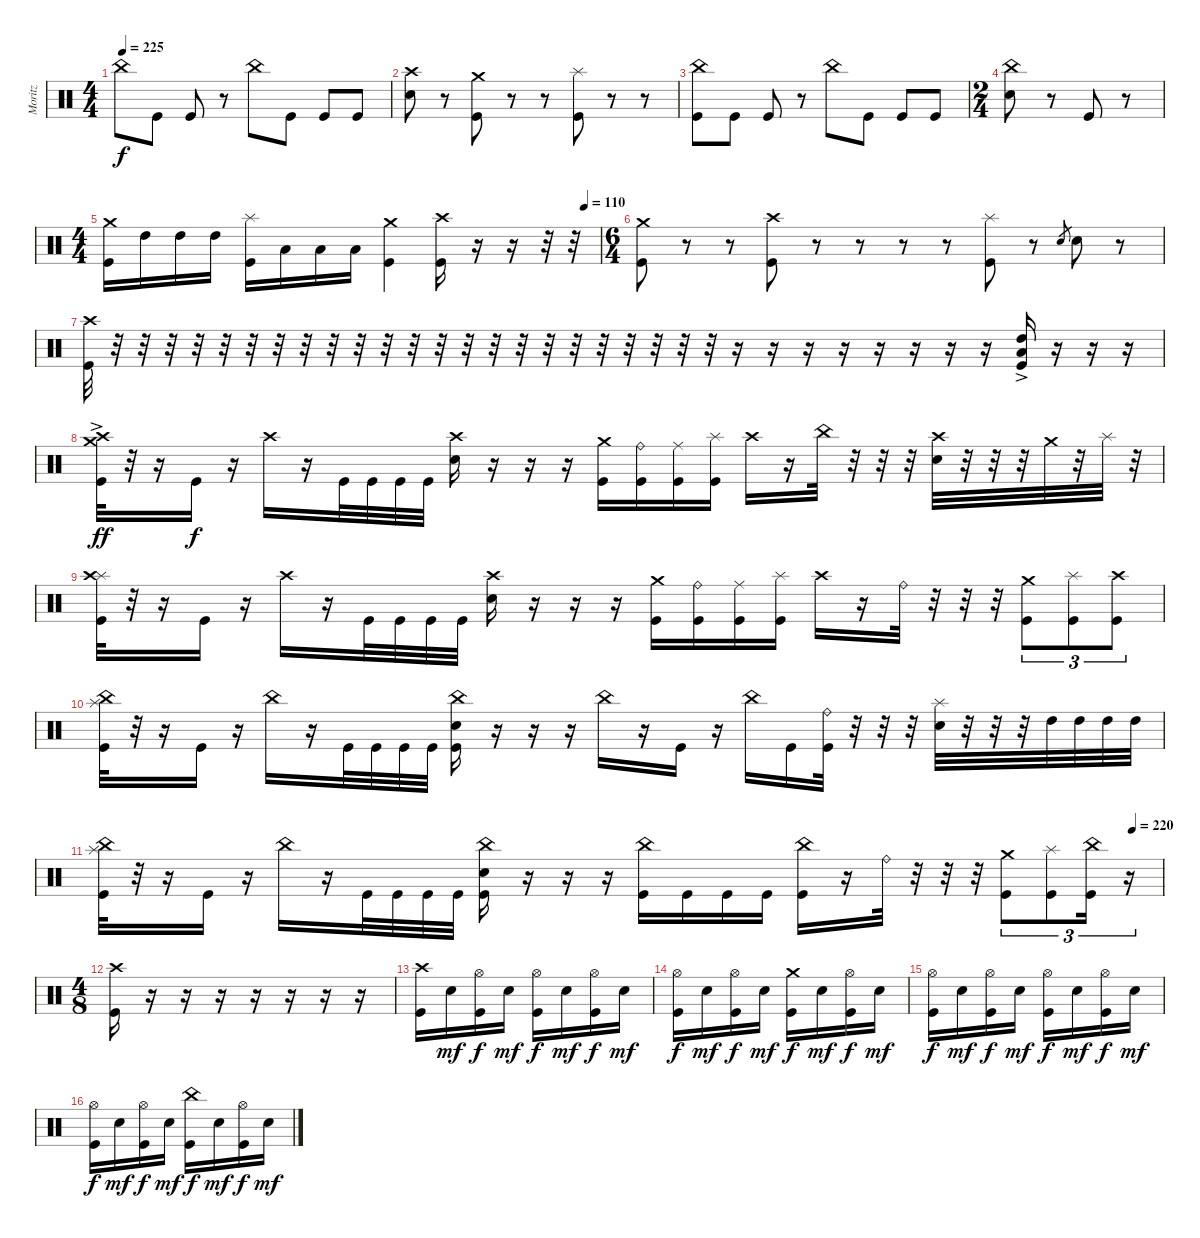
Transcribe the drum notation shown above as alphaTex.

\track ("Moritz" "Moritz") {instrument percussion}
\staff {score}
\articulation defaults
\ts (4 4)
\tempo 225
\clef neutral
\ks c "China (hit)".8{dy f} "Kick (hit)".8 "Kick (hit)".8
r.8 "China (hit)".8 "Kick (hit)".8 "Kick (hit)".8 "Kick (hit)".8 |
("Crash high (hit)" "Snare (hit) 2").8 r.8 ("Crash medium (hit)" "Kick (hit)").8 r.8 r.8 ("Splash (hit)" "Kick (hit)").8 r.8 r.8 |
("China (hit)" "Kick (hit)").8 "Kick (hit)".8 "Kick (hit)".8 r.8 "China (hit)".8 "Kick (hit)".8 "Kick (hit)".8 "Kick (hit)".8 |
\ts (2 4)
("China (hit)" "Snare (hit) 2").8 r.8 "Kick (hit)".8 r.8 |
\ts (4 4)
\tempo (110 0.96875)
("Crash medium (hit)" "Kick (hit)").16 "High Tom (hit)".16 "High Tom (hit)".16 "High Tom (hit)".16 ("Splash (hit)" "Kick (hit)").16 "Low Tom (hit)".16 "Low Tom (hit)".16 "Low Tom (hit)".16 ("Crash medium (hit)" "Kick (hit)").4 ("Crash high (hit)" "Kick (hit)").16 r.16 r.16 r.32 r.32 |
\ts (6 4)
("Crash medium (hit)" "Kick (hit)").8 r.8 r.8 ("Crash high (hit)" "Kick (hit)").8 r.8 r.8 r.8 r.8 ("Splash (hit)" "Kick (hit)").8 r.8 "Snare (hit) 2".8{gr} "Snare (hit) 2".8 r.8 |
("Crash high (hit)" "Kick (hit)").32 r.32 r.32 r.32 r.32 r.32 r.32 r.32 r.32 r.32 r.32 r.32 r.32 r.32 r.32 r.32 r.32 r.32 r.32 r.32 r.32 r.32 r.32 r.32 r.16 r.16 r.16 r.16 r.16 r.16 r.16 r.16 ("High Tom (hit)"{ac} "Low Floor Tom (hit)"{ac} "Kick (hit)"{ac}).16 r.16 r.16 r.16 |
("Crash medium (hit)"{ac} "Crash high (hit)"{ac} "Kick (hit)"{ac}).32{dy ff} r.32 r.16 "Kick (hit)".16{dy f} r.16 "Crash high (hit)".16 r.16 "Kick (hit)".32 "Kick (hit)".32 "Kick (hit)".32 "Kick (hit)".32 ("Crash high (hit)" "Snare (hit) 2").16 r.16 r.16 r.16 ("Crash medium (hit)" "Kick (hit)").16 ("Ride (bell)" "Kick (hit)").16 ("Ride (middle)" "Kick (hit)").16 ("Splash (hit)" "Kick (hit)").16 "Crash high (hit)".16 r.16 "China (hit)".32 r.32 r.32 r.32 ("Crash high (hit)" "Snare (hit) 2").32 r.32 r.32 r.32 "Crash medium (hit)".32 r.32 "Splash (hit)".32 r.32 |
("Splash (hit)" "Crash high (hit)" "Kick (hit)").32 r.32 r.16 "Kick (hit)".16 r.16 "Crash high (hit)".16 r.16 "Kick (hit)".32 "Kick (hit)".32 "Kick (hit)".32 "Kick (hit)".32 ("Crash high (hit)" "Snare (hit) 2").16 r.16 r.16 r.16 ("Crash medium (hit)" "Kick (hit)").16 ("Ride (bell)" "Kick (hit)").16 ("Ride (middle)" "Kick (hit)").16 ("Splash (hit)" "Kick (hit)").16 "Crash high (hit)".16 r.16 "Ride (bell)".32 r.32 r.32 r.32 ("Crash medium (hit)" "Kick (hit)").8{tu (3 2)} ("Splash (hit)" "Kick (hit)").8{tu (3 2)} ("Crash high (hit)" "Kick (hit)").8{tu (3 2)} |
("Splash (hit)" "China (hit)" "Kick (hit)").32 r.32 r.16 "Kick (hit)".16 r.16 "China (hit)".16 r.16 "Kick (hit)".32 "Kick (hit)".32 "Kick (hit)".32 "Kick (hit)".32 ("China (hit)" "Snare (hit) 2" "Kick (hit)").16 r.16 r.16 r.16 "China (hit)".16 r.16 "Kick (hit)".16 r.16 "China (hit)".16 "Kick (hit)".16 ("Ride (bell)" "Kick (hit)").32 r.32 r.32 r.32 ("Splash (hit)" "Snare (hit) 2").32 r.32 r.32 r.32 "High Tom (hit)".32 "High Tom (hit)".32 "High Tom (hit)".32 "High Tom (hit)".32 |
\tempo (220 0.9722222222222222)
("Splash (hit)" "China (hit)" "Kick (hit)").32 r.32 r.16 "Kick (hit)".16 r.16 "China (hit)".16 r.16 "Kick (hit)".32 "Kick (hit)".32 "Kick (hit)".32 "Kick (hit)".32 ("China (hit)" "Snare (hit) 2" "Kick (hit)").16 r.16 r.16 r.16 ("China (hit)" "Kick (hit)").16 "Kick (hit)".16 "Kick (hit)".16 "Kick (hit)".16 ("China (hit)" "Kick (hit)").16 r.16 "Ride (bell)".32 r.32 r.32 r.32 ("Crash medium (hit)" "Kick (hit)").8{tu (3 2)} ("Splash (hit)" "Kick (hit)").8{tu (3 2)} ("China (hit)" "Kick (hit)").16{tu (3 2)} r.16{tu (3 2)} |
\ts (4 8)
("Crash high (hit)" "Kick (hit)").16 r.16 r.16 r.16 r.16 r.16 r.16 r.16 |
("Crash high (hit)" "Kick (hit)").16 "Snare (hit) 2".16{dy mf} ("Hi-Hat (open)" "Kick (hit)").16{dy f} "Snare (hit) 2".16{dy mf} ("Hi-Hat (open)" "Kick (hit)").16{dy f} "Snare (hit) 2".16{dy mf} ("Hi-Hat (open)" "Kick (hit)").16{dy f} "Snare (hit) 2".16{dy mf} |
("Hi-Hat (open)" "Kick (hit)").16{dy f} "Snare (hit) 2".16{dy mf} ("Hi-Hat (open)" "Kick (hit)").16{dy f} "Snare (hit) 2".16{dy mf} ("Crash medium (hit)" "Kick (hit)").16{dy f} "Snare (hit) 2".16{dy mf} ("Hi-Hat (open)" "Kick (hit)").16{dy f} "Snare (hit) 2".16{dy mf} |
("Hi-Hat (open)" "Kick (hit)").16{dy f} "Snare (hit) 2".16{dy mf} ("Hi-Hat (open)" "Kick (hit)").16{dy f} "Snare (hit) 2".16{dy mf} ("Hi-Hat (open)" "Kick (hit)").16{dy f} "Snare (hit) 2".16{dy mf} ("Hi-Hat (open)" "Kick (hit)").16{dy f} "Snare (hit) 2".16{dy mf} |
("Hi-Hat (open)" "Kick (hit)").16{dy f} "Snare (hit) 2".16{dy mf} ("Hi-Hat (open)" "Kick (hit)").16{dy f} "Snare (hit) 2".16{dy mf} ("China (hit)" "Kick (hit)").16{dy f} "Snare (hit) 2".16{dy mf} ("Hi-Hat (open)" "Kick (hit)").16{dy f} "Snare (hit) 2".16{dy mf}
